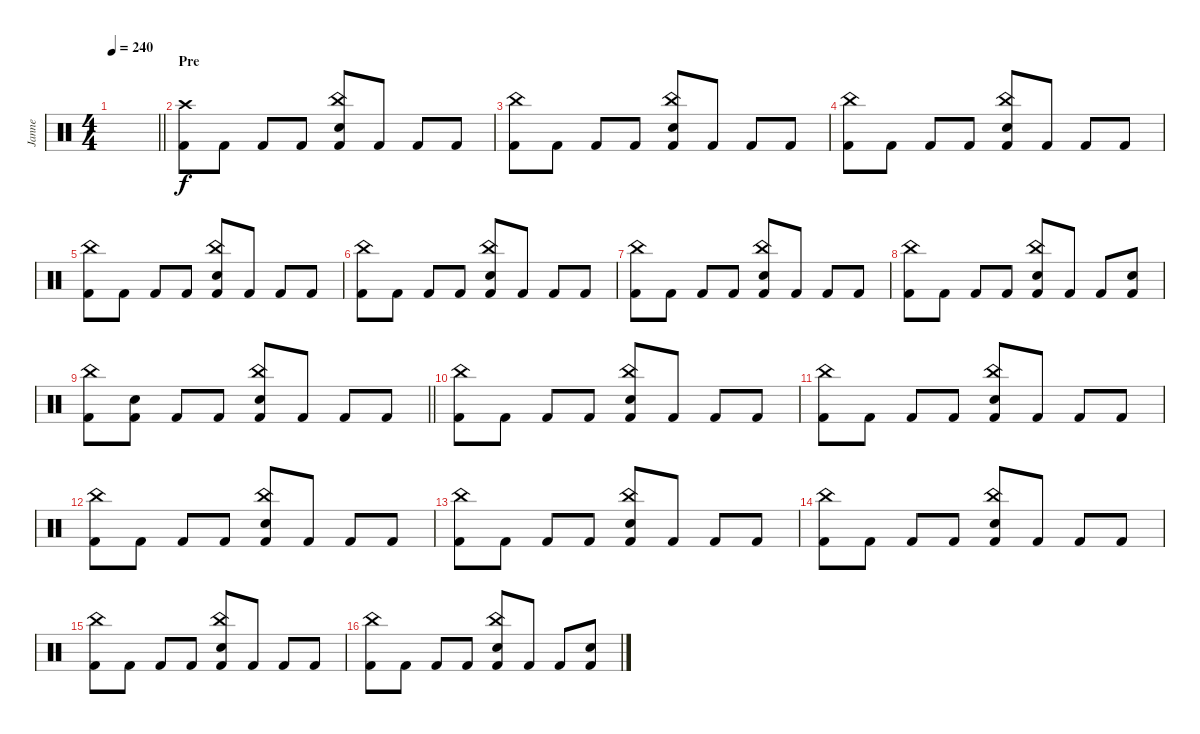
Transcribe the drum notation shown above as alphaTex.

\track ("Janne" "Janne") {instrument percussion}
\staff {score}
\articulation defaults
\ts (4 4)
\tempo 240
\clef neutral
\barLineRight lightlight
\ks c
|
\section ("" "Pre")
("Crash high (hit)" "Kick (hit) 2").8 "Kick (hit) 2".8 "Kick (hit) 2".8 "Kick (hit) 2".8 ("China (hit)" "Electric Snare (hit)" "Kick (hit) 2").8 "Kick (hit) 2".8 "Kick (hit) 2".8 "Kick (hit) 2".8 |
("China (hit)" "Kick (hit) 2").8 "Kick (hit) 2".8 "Kick (hit) 2".8 "Kick (hit) 2".8 ("China (hit)" "Electric Snare (hit)" "Kick (hit) 2").8 "Kick (hit) 2".8 "Kick (hit) 2".8 "Kick (hit) 2".8 |
("China (hit)" "Kick (hit) 2").8 "Kick (hit) 2".8 "Kick (hit) 2".8 "Kick (hit) 2".8 ("China (hit)" "Electric Snare (hit)" "Kick (hit) 2").8 "Kick (hit) 2".8 "Kick (hit) 2".8 "Kick (hit) 2".8 |
("China (hit)" "Kick (hit) 2").8 "Kick (hit) 2".8 "Kick (hit) 2".8 "Kick (hit) 2".8 ("China (hit)" "Electric Snare (hit)" "Kick (hit) 2").8 "Kick (hit) 2".8 "Kick (hit) 2".8 "Kick (hit) 2".8 |
("China (hit)" "Kick (hit) 2").8 "Kick (hit) 2".8 "Kick (hit) 2".8 "Kick (hit) 2".8 ("China (hit)" "Electric Snare (hit)" "Kick (hit) 2").8 "Kick (hit) 2".8 "Kick (hit) 2".8 "Kick (hit) 2".8 |
("China (hit)" "Kick (hit) 2").8 "Kick (hit) 2".8 "Kick (hit) 2".8 "Kick (hit) 2".8 ("China (hit)" "Electric Snare (hit)" "Kick (hit) 2").8 "Kick (hit) 2".8 "Kick (hit) 2".8 "Kick (hit) 2".8 |
("China (hit)" "Kick (hit) 2").8 "Kick (hit) 2".8 "Kick (hit) 2".8 "Kick (hit) 2".8 ("China (hit)" "Electric Snare (hit)" "Kick (hit) 2").8 "Kick (hit) 2".8 "Kick (hit) 2".8 ("Electric Snare (hit)" "Kick (hit) 2").8 |
\barLineRight lightlight
("China (hit)" "Kick (hit) 2").8 ("Electric Snare (hit)" "Kick (hit) 2").8 "Kick (hit) 2".8 "Kick (hit) 2".8 ("China (hit)" "Electric Snare (hit)" "Kick (hit) 2").8 "Kick (hit) 2".8 "Kick (hit) 2".8 "Kick (hit) 2".8 |
("China (hit)" "Kick (hit) 2").8 "Kick (hit) 2".8 "Kick (hit) 2".8 "Kick (hit) 2".8 ("China (hit)" "Electric Snare (hit)" "Kick (hit) 2").8 "Kick (hit) 2".8 "Kick (hit) 2".8 "Kick (hit) 2".8 |
("China (hit)" "Kick (hit) 2").8 "Kick (hit) 2".8 "Kick (hit) 2".8 "Kick (hit) 2".8 ("China (hit)" "Electric Snare (hit)" "Kick (hit) 2").8 "Kick (hit) 2".8 "Kick (hit) 2".8 "Kick (hit) 2".8 |
("China (hit)" "Kick (hit) 2").8 "Kick (hit) 2".8 "Kick (hit) 2".8 "Kick (hit) 2".8 ("China (hit)" "Electric Snare (hit)" "Kick (hit) 2").8 "Kick (hit) 2".8 "Kick (hit) 2".8 "Kick (hit) 2".8 |
("China (hit)" "Kick (hit) 2").8 "Kick (hit) 2".8 "Kick (hit) 2".8 "Kick (hit) 2".8 ("China (hit)" "Electric Snare (hit)" "Kick (hit) 2").8 "Kick (hit) 2".8 "Kick (hit) 2".8 "Kick (hit) 2".8 |
("China (hit)" "Kick (hit) 2").8 "Kick (hit) 2".8 "Kick (hit) 2".8 "Kick (hit) 2".8 ("China (hit)" "Electric Snare (hit)" "Kick (hit) 2").8 "Kick (hit) 2".8 "Kick (hit) 2".8 "Kick (hit) 2".8 |
("China (hit)" "Kick (hit) 2").8 "Kick (hit) 2".8 "Kick (hit) 2".8 "Kick (hit) 2".8 ("China (hit)" "Electric Snare (hit)" "Kick (hit) 2").8 "Kick (hit) 2".8 "Kick (hit) 2".8 "Kick (hit) 2".8 |
("China (hit)" "Kick (hit) 2").8 "Kick (hit) 2".8 "Kick (hit) 2".8 "Kick (hit) 2".8 ("China (hit)" "Electric Snare (hit)" "Kick (hit) 2").8 "Kick (hit) 2".8 "Kick (hit) 2".8 ("Electric Snare (hit)" "Kick (hit) 2").8
